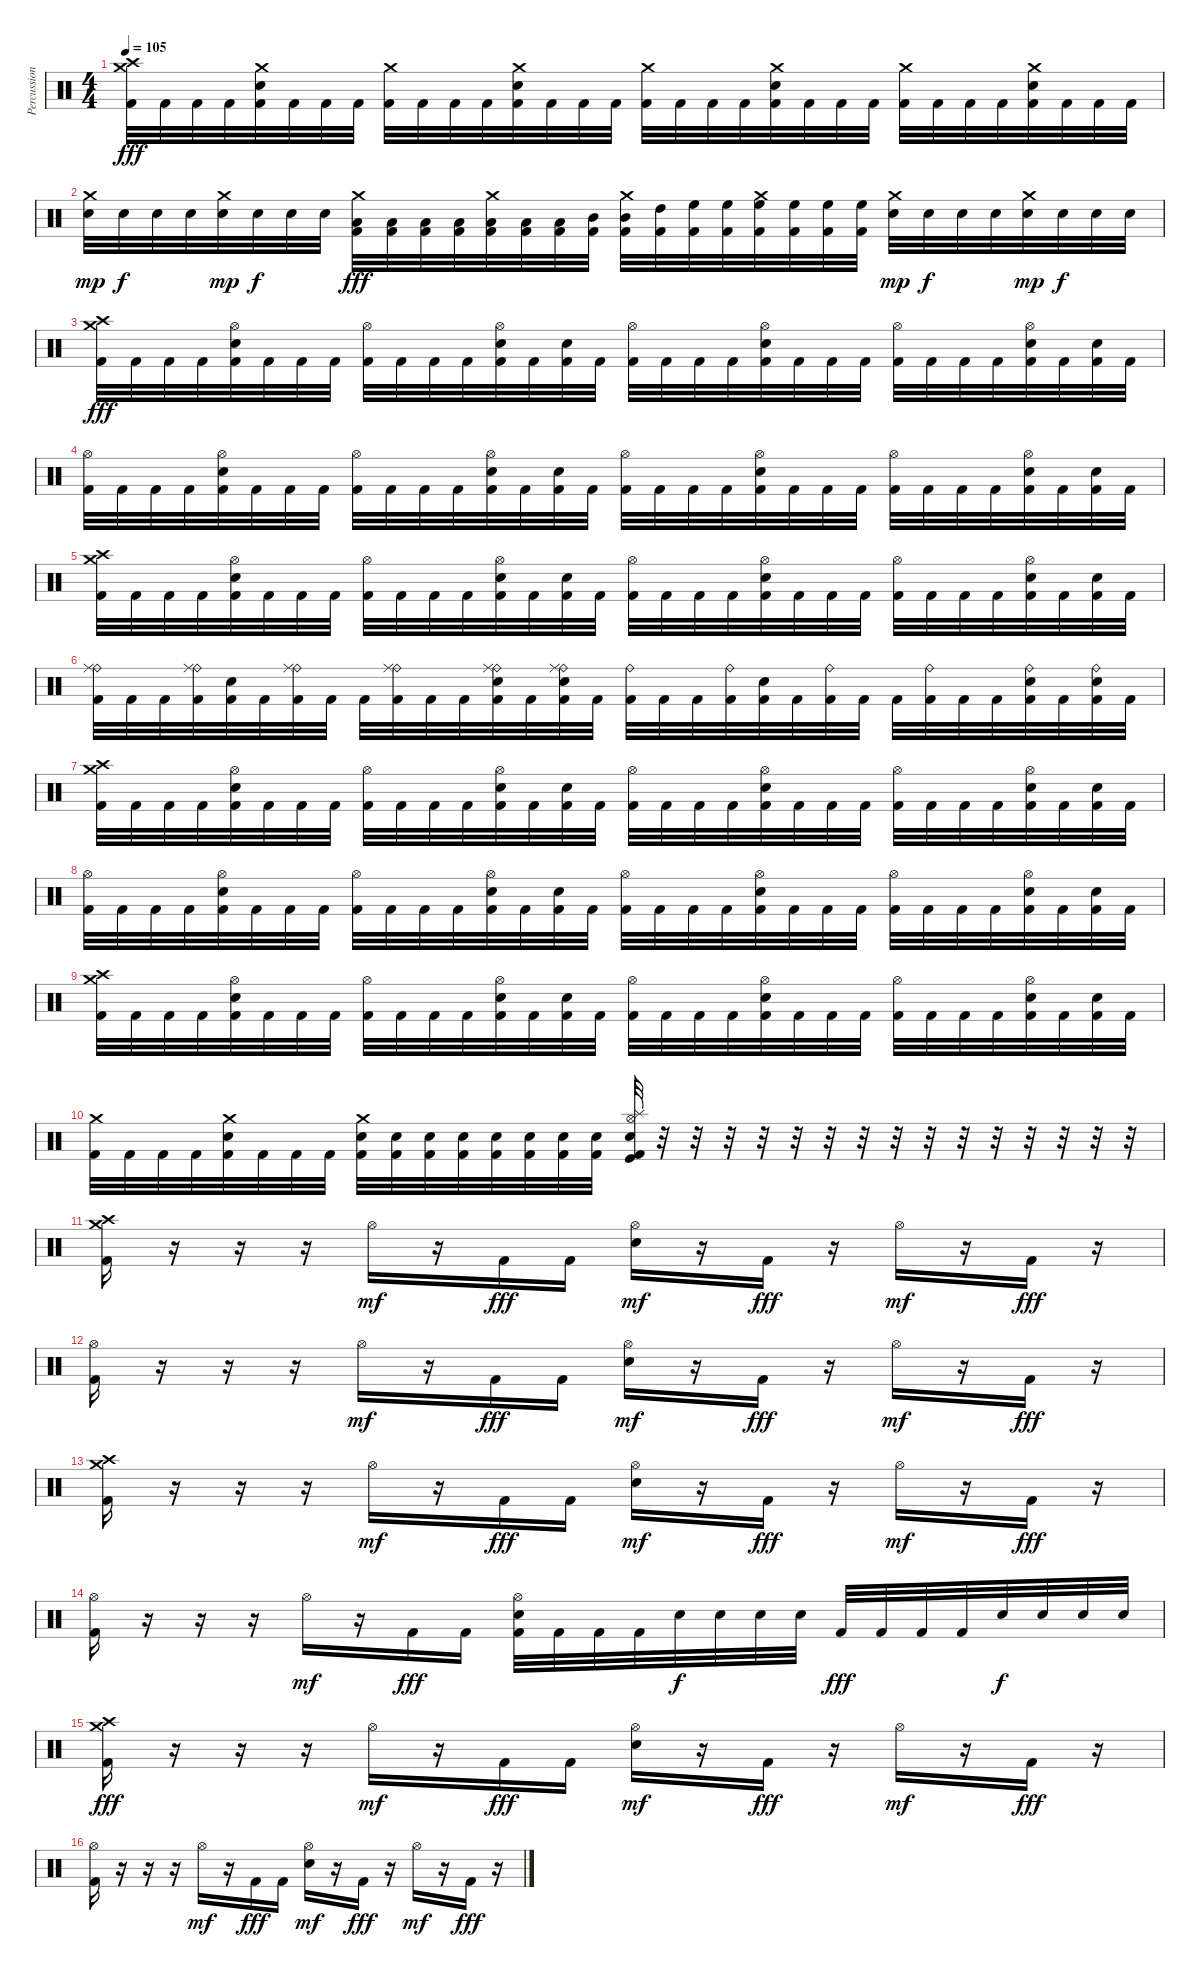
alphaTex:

\track ("Percussions" "Percussion") {instrument percussion}
\staff {score}
\articulation defaults
\ts (4 4)
\tempo 105
\clef neutral
\ks c
("Crash high (hit)" "Crash medium (hit)" "Kick (hit) 2").32{dy fff} "Kick (hit) 2".32 "Kick (hit) 2".32 "Kick (hit) 2".32 ("Crash medium (hit)" "Electric Snare (hit)" "Kick (hit) 2").32 "Kick (hit) 2".32 "Kick (hit) 2".32 "Kick (hit) 2".32 ("Crash medium (hit)" "Kick (hit) 2").32 "Kick (hit) 2".32 "Kick (hit) 2".32 "Kick (hit) 2".32 ("Crash medium (hit)" "Electric Snare (hit)" "Kick (hit) 2").32 "Kick (hit) 2".32 "Kick (hit) 2".32 "Kick (hit) 2".32 ("Crash medium (hit)" "Kick (hit) 2").32 "Kick (hit) 2".32 "Kick (hit) 2".32 "Kick (hit) 2".32 ("Crash medium (hit)" "Electric Snare (hit)" "Kick (hit) 2").32 "Kick (hit) 2".32 "Kick (hit) 2".32 "Kick (hit) 2".32 ("Crash medium (hit)" "Kick (hit) 2").32 "Kick (hit) 2".32 "Kick (hit) 2".32 "Kick (hit) 2".32 ("Crash medium (hit)" "Electric Snare (hit)" "Kick (hit) 2").32 "Kick (hit) 2".32 "Kick (hit) 2".32 "Kick (hit) 2".32 |
("Crash medium (hit)" "Electric Snare (hit)").32{dy mp} "Electric Snare (hit)".32{dy f} "Electric Snare (hit)".32 "Electric Snare (hit)".32 ("Crash medium (hit)" "Electric Snare (hit)").32{dy mp} "Electric Snare (hit)".32{dy f} "Electric Snare (hit)".32 "Electric Snare (hit)".32 ("Crash medium (hit)" "Low Floor Tom (hit)" "Kick (hit) 2").32{dy fff} ("Low Floor Tom (hit)" "Kick (hit) 2").32 ("Low Floor Tom (hit)" "Kick (hit) 2").32 ("Low Floor Tom (hit)" "Kick (hit) 2").32 ("Crash medium (hit)" "Low Tom (hit)" "Kick (hit) 2").32 ("Low Tom (hit)" "Kick (hit) 2").32 ("Low Tom (hit)" "Kick (hit) 2").32 ("Mid Tom (hit)" "Kick (hit) 2").32 ("Crash medium (hit)" "Mid Tom (hit)" "Kick (hit) 2").32 ("High Tom (hit)" "Kick (hit) 2").32 ("High Floor Tom (hit)" "Kick (hit) 2").32 ("High Floor Tom (hit)" "Kick (hit) 2").32 ("Crash medium (hit)" "High Floor Tom (hit)" "Kick (hit) 2").32 ("High Floor Tom (hit)" "Kick (hit) 2").32 ("High Floor Tom (hit)" "Kick (hit) 2").32 ("High Floor Tom (hit)" "Kick (hit) 2").32 ("Crash medium (hit)" "Electric Snare (hit)").32{dy mp} "Electric Snare (hit)".32{dy f} "Electric Snare (hit)".32 "Electric Snare (hit)".32 ("Crash medium (hit)" "Electric Snare (hit)").32{dy mp} "Electric Snare (hit)".32{dy f} "Electric Snare (hit)".32 "Electric Snare (hit)".32 |
("Crash high (hit)" "Crash medium (hit)" "Kick (hit) 2").32{dy fff} "Kick (hit) 2".32 "Kick (hit) 2".32 "Kick (hit) 2".32 ("Hi-Hat (open)" "Electric Snare (hit)" "Kick (hit) 2").32 "Kick (hit) 2".32 "Kick (hit) 2".32 "Kick (hit) 2".32 ("Hi-Hat (open)" "Kick (hit) 2").32 "Kick (hit) 2".32 "Kick (hit) 2".32 "Kick (hit) 2".32 ("Hi-Hat (open)" "Electric Snare (hit)" "Kick (hit) 2").32 "Kick (hit) 2".32 ("Electric Snare (hit)" "Kick (hit) 2").32 "Kick (hit) 2".32 ("Hi-Hat (open)" "Kick (hit) 2").32 "Kick (hit) 2".32 "Kick (hit) 2".32 "Kick (hit) 2".32 ("Hi-Hat (open)" "Electric Snare (hit)" "Kick (hit) 2").32 "Kick (hit) 2".32 "Kick (hit) 2".32 "Kick (hit) 2".32 ("Hi-Hat (open)" "Kick (hit) 2").32 "Kick (hit) 2".32 "Kick (hit) 2".32 "Kick (hit) 2".32 ("Hi-Hat (open)" "Electric Snare (hit)" "Kick (hit) 2").32 "Kick (hit) 2".32 ("Electric Snare (hit)" "Kick (hit) 2").32 "Kick (hit) 2".32 |
("Hi-Hat (open)" "Kick (hit) 2").32 "Kick (hit) 2".32 "Kick (hit) 2".32 "Kick (hit) 2".32 ("Hi-Hat (open)" "Electric Snare (hit)" "Kick (hit) 2").32 "Kick (hit) 2".32 "Kick (hit) 2".32 "Kick (hit) 2".32 ("Hi-Hat (open)" "Kick (hit) 2").32 "Kick (hit) 2".32 "Kick (hit) 2".32 "Kick (hit) 2".32 ("Hi-Hat (open)" "Electric Snare (hit)" "Kick (hit) 2").32 "Kick (hit) 2".32 ("Electric Snare (hit)" "Kick (hit) 2").32 "Kick (hit) 2".32 ("Hi-Hat (open)" "Kick (hit) 2").32 "Kick (hit) 2".32 "Kick (hit) 2".32 "Kick (hit) 2".32 ("Hi-Hat (open)" "Electric Snare (hit)" "Kick (hit) 2").32 "Kick (hit) 2".32 "Kick (hit) 2".32 "Kick (hit) 2".32 ("Hi-Hat (open)" "Kick (hit) 2").32 "Kick (hit) 2".32 "Kick (hit) 2".32 "Kick (hit) 2".32 ("Hi-Hat (open)" "Electric Snare (hit)" "Kick (hit) 2").32 "Kick (hit) 2".32 ("Electric Snare (hit)" "Kick (hit) 2").32 "Kick (hit) 2".32 |
("Crash high (hit)" "Crash medium (hit)" "Kick (hit) 2").32 "Kick (hit) 2".32 "Kick (hit) 2".32 "Kick (hit) 2".32 ("Hi-Hat (open)" "Electric Snare (hit)" "Kick (hit) 2").32 "Kick (hit) 2".32 "Kick (hit) 2".32 "Kick (hit) 2".32 ("Hi-Hat (open)" "Kick (hit) 2").32 "Kick (hit) 2".32 "Kick (hit) 2".32 "Kick (hit) 2".32 ("Hi-Hat (open)" "Electric Snare (hit)" "Kick (hit) 2").32 "Kick (hit) 2".32 ("Electric Snare (hit)" "Kick (hit) 2").32 "Kick (hit) 2".32 ("Hi-Hat (open)" "Kick (hit) 2").32 "Kick (hit) 2".32 "Kick (hit) 2".32 "Kick (hit) 2".32 ("Hi-Hat (open)" "Electric Snare (hit)" "Kick (hit) 2").32 "Kick (hit) 2".32 "Kick (hit) 2".32 "Kick (hit) 2".32 ("Hi-Hat (open)" "Kick (hit) 2").32 "Kick (hit) 2".32 "Kick (hit) 2".32 "Kick (hit) 2".32 ("Hi-Hat (open)" "Electric Snare (hit)" "Kick (hit) 2").32 "Kick (hit) 2".32 ("Electric Snare (hit)" "Kick (hit) 2").32 "Kick (hit) 2".32 |
("Ride (bell)" "Ride (middle)" "Kick (hit) 2").32 "Kick (hit) 2".32 "Kick (hit) 2".32 ("Ride (bell)" "Ride (middle)" "Kick (hit) 2").32 ("Electric Snare (hit)" "Kick (hit) 2").32 "Kick (hit) 2".32 ("Ride (bell)" "Ride (middle)" "Kick (hit) 2").32 "Kick (hit) 2".32 "Kick (hit) 2".32 ("Ride (bell)" "Ride (middle)" "Kick (hit) 2").32 "Kick (hit) 2".32 "Kick (hit) 2".32 ("Ride (bell)" "Ride (middle)" "Electric Snare (hit)" "Kick (hit) 2").32 "Kick (hit) 2".32 ("Ride (bell)" "Ride (middle)" "Electric Snare (hit)" "Kick (hit) 2").32 "Kick (hit) 2".32 ("Ride (bell)" "Kick (hit) 2").32 "Kick (hit) 2".32 "Kick (hit) 2".32 ("Ride (bell)" "Kick (hit) 2").32 ("Electric Snare (hit)" "Kick (hit) 2").32 "Kick (hit) 2".32 ("Ride (bell)" "Kick (hit) 2").32 "Kick (hit) 2".32 "Kick (hit) 2".32 ("Ride (bell)" "Kick (hit) 2").32 "Kick (hit) 2".32 "Kick (hit) 2".32 ("Ride (bell)" "Electric Snare (hit)" "Kick (hit) 2").32 "Kick (hit) 2".32 ("Ride (bell)" "Electric Snare (hit)" "Kick (hit) 2").32 "Kick (hit) 2".32 |
("Crash high (hit)" "Crash medium (hit)" "Kick (hit) 2").32 "Kick (hit) 2".32 "Kick (hit) 2".32 "Kick (hit) 2".32 ("Hi-Hat (open)" "Electric Snare (hit)" "Kick (hit) 2").32 "Kick (hit) 2".32 "Kick (hit) 2".32 "Kick (hit) 2".32 ("Hi-Hat (open)" "Kick (hit) 2").32 "Kick (hit) 2".32 "Kick (hit) 2".32 "Kick (hit) 2".32 ("Hi-Hat (open)" "Electric Snare (hit)" "Kick (hit) 2").32 "Kick (hit) 2".32 ("Electric Snare (hit)" "Kick (hit) 2").32 "Kick (hit) 2".32 ("Hi-Hat (open)" "Kick (hit) 2").32 "Kick (hit) 2".32 "Kick (hit) 2".32 "Kick (hit) 2".32 ("Hi-Hat (open)" "Electric Snare (hit)" "Kick (hit) 2").32 "Kick (hit) 2".32 "Kick (hit) 2".32 "Kick (hit) 2".32 ("Hi-Hat (open)" "Kick (hit) 2").32 "Kick (hit) 2".32 "Kick (hit) 2".32 "Kick (hit) 2".32 ("Hi-Hat (open)" "Electric Snare (hit)" "Kick (hit) 2").32 "Kick (hit) 2".32 ("Electric Snare (hit)" "Kick (hit) 2").32 "Kick (hit) 2".32 |
("Hi-Hat (open)" "Kick (hit) 2").32 "Kick (hit) 2".32 "Kick (hit) 2".32 "Kick (hit) 2".32 ("Hi-Hat (open)" "Electric Snare (hit)" "Kick (hit) 2").32 "Kick (hit) 2".32 "Kick (hit) 2".32 "Kick (hit) 2".32 ("Hi-Hat (open)" "Kick (hit) 2").32 "Kick (hit) 2".32 "Kick (hit) 2".32 "Kick (hit) 2".32 ("Hi-Hat (open)" "Electric Snare (hit)" "Kick (hit) 2").32 "Kick (hit) 2".32 ("Electric Snare (hit)" "Kick (hit) 2").32 "Kick (hit) 2".32 ("Hi-Hat (open)" "Kick (hit) 2").32 "Kick (hit) 2".32 "Kick (hit) 2".32 "Kick (hit) 2".32 ("Hi-Hat (open)" "Electric Snare (hit)" "Kick (hit) 2").32 "Kick (hit) 2".32 "Kick (hit) 2".32 "Kick (hit) 2".32 ("Hi-Hat (open)" "Kick (hit) 2").32 "Kick (hit) 2".32 "Kick (hit) 2".32 "Kick (hit) 2".32 ("Hi-Hat (open)" "Electric Snare (hit)" "Kick (hit) 2").32 "Kick (hit) 2".32 ("Electric Snare (hit)" "Kick (hit) 2").32 "Kick (hit) 2".32 |
("Crash high (hit)" "Crash medium (hit)" "Kick (hit) 2").32 "Kick (hit) 2".32 "Kick (hit) 2".32 "Kick (hit) 2".32 ("Hi-Hat (open)" "Electric Snare (hit)" "Kick (hit) 2").32 "Kick (hit) 2".32 "Kick (hit) 2".32 "Kick (hit) 2".32 ("Hi-Hat (open)" "Kick (hit) 2").32 "Kick (hit) 2".32 "Kick (hit) 2".32 "Kick (hit) 2".32 ("Hi-Hat (open)" "Electric Snare (hit)" "Kick (hit) 2").32 "Kick (hit) 2".32 ("Electric Snare (hit)" "Kick (hit) 2").32 "Kick (hit) 2".32 ("Hi-Hat (open)" "Kick (hit) 2").32 "Kick (hit) 2".32 "Kick (hit) 2".32 "Kick (hit) 2".32 ("Hi-Hat (open)" "Electric Snare (hit)" "Kick (hit) 2").32 "Kick (hit) 2".32 "Kick (hit) 2".32 "Kick (hit) 2".32 ("Hi-Hat (open)" "Kick (hit) 2").32 "Kick (hit) 2".32 "Kick (hit) 2".32 "Kick (hit) 2".32 ("Hi-Hat (open)" "Electric Snare (hit)" "Kick (hit) 2").32 "Kick (hit) 2".32 ("Electric Snare (hit)" "Kick (hit) 2").32 "Kick (hit) 2".32 |
("Crash medium (hit)" "Kick (hit) 2").32 "Kick (hit) 2".32 "Kick (hit) 2".32 "Kick (hit) 2".32 ("Crash medium (hit)" "Electric Snare (hit)" "Kick (hit) 2").32 "Kick (hit) 2".32 "Kick (hit) 2".32 "Kick (hit) 2".32 ("Crash medium (hit)" "Electric Snare (hit)" "Kick (hit) 2").32 ("Electric Snare (hit)" "Kick (hit) 2").32 ("Electric Snare (hit)" "Kick (hit) 2").32 ("Electric Snare (hit)" "Kick (hit) 2").32 ("Electric Snare (hit)" "Kick (hit) 2").32 ("Electric Snare (hit)" "Kick (hit) 2").32 ("Electric Snare (hit)" "Kick (hit) 2").32 ("Electric Snare (hit)" "Kick (hit) 2").32 ("Hi-Hat (open)" "Splash (hit)" "Electric Snare (hit)" "Kick (hit)" "Kick (hit) 2").32 r.32 r.32 r.32 r.32 r.32 r.32 r.32 r.32 r.32 r.32 r.32 r.32 r.32 r.32 r.32 |
("Crash medium (hit)" "Crash high (hit)" "Kick (hit) 2").16 r.16 r.16 r.16 "Hi-Hat (open)".16{dy mf} r.16 "Kick (hit) 2".16{dy fff} "Kick (hit) 2".16 ("Hi-Hat (open)" "Electric Snare (hit)").16{dy mf} r.16 "Kick (hit) 2".16{dy fff} r.16 "Hi-Hat (open)".16{dy mf} r.16 "Kick (hit) 2".16{dy fff} r.16 |
("Hi-Hat (open)" "Kick (hit) 2").16 r.16 r.16 r.16 "Hi-Hat (open)".16{dy mf} r.16 "Kick (hit) 2".16{dy fff} "Kick (hit) 2".16 ("Hi-Hat (open)" "Electric Snare (hit)").16{dy mf} r.16 "Kick (hit) 2".16{dy fff} r.16 "Hi-Hat (open)".16{dy mf} r.16 "Kick (hit) 2".16{dy fff} r.16 |
("Crash medium (hit)" "Crash high (hit)" "Kick (hit) 2").16 r.16 r.16 r.16 "Hi-Hat (open)".16{dy mf} r.16 "Kick (hit) 2".16{dy fff} "Kick (hit) 2".16 ("Hi-Hat (open)" "Electric Snare (hit)").16{dy mf} r.16 "Kick (hit) 2".16{dy fff} r.16 "Hi-Hat (open)".16{dy mf} r.16 "Kick (hit) 2".16{dy fff} r.16 |
("Hi-Hat (open)" "Kick (hit) 2").16 r.16 r.16 r.16 "Hi-Hat (open)".16{dy mf} r.16 "Kick (hit) 2".16{dy fff} "Kick (hit) 2".16 ("Hi-Hat (open)" "Electric Snare (hit)" "Kick (hit) 2").32 "Kick (hit) 2".32 "Kick (hit) 2".32 "Kick (hit) 2".32 "Electric Snare (hit)".32{dy f} "Electric Snare (hit)".32 "Electric Snare (hit)".32 "Electric Snare (hit)".32 "Kick (hit) 2".32{dy fff} "Kick (hit) 2".32 "Kick (hit) 2".32 "Kick (hit) 2".32 "Electric Snare (hit)".32{dy f} "Electric Snare (hit)".32 "Electric Snare (hit)".32 "Electric Snare (hit)".32 |
("Crash medium (hit)" "Crash high (hit)" "Kick (hit) 2").16{dy fff} r.16 r.16 r.16 "Hi-Hat (open)".16{dy mf} r.16 "Kick (hit) 2".16{dy fff} "Kick (hit) 2".16 ("Hi-Hat (open)" "Electric Snare (hit)").16{dy mf} r.16 "Kick (hit) 2".16{dy fff} r.16 "Hi-Hat (open)".16{dy mf} r.16 "Kick (hit) 2".16{dy fff} r.16 |
("Hi-Hat (open)" "Kick (hit) 2").16 r.16 r.16 r.16 "Hi-Hat (open)".16{dy mf} r.16 "Kick (hit) 2".16{dy fff} "Kick (hit) 2".16 ("Hi-Hat (open)" "Electric Snare (hit)").16{dy mf} r.16 "Kick (hit) 2".16{dy fff} r.16 "Hi-Hat (open)".16{dy mf} r.16 "Kick (hit) 2".16{dy fff} r.16
